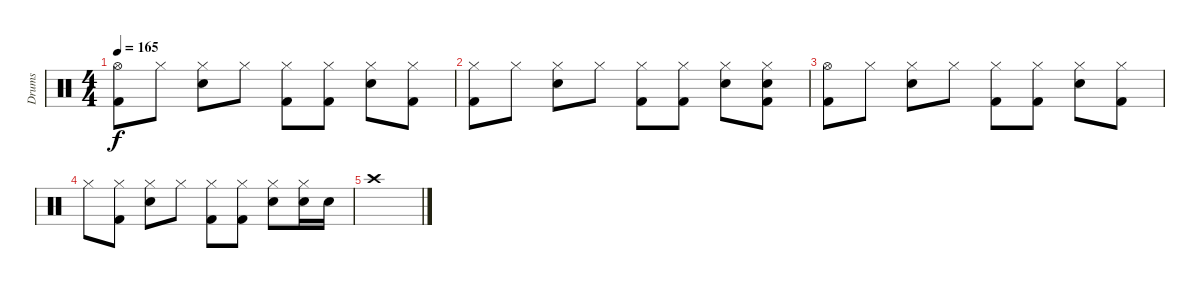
\track ("Drums" "Drums") {instrument percussion}
\staff {score}
\articulation defaults
\ts (4 4)
\tempo 165
\clef neutral
\ks c
("Hi-Hat (open)" "Kick (hit) 2").8{dy f} "Hi-Hat (closed)".8 ("Hi-Hat (closed)" "Electric Snare (hit)").8 "Hi-Hat (closed)".8 ("Hi-Hat (closed)" "Kick (hit) 2").8 ("Hi-Hat (closed)" "Kick (hit) 2").8 ("Hi-Hat (closed)" "Electric Snare (hit)").8 ("Hi-Hat (closed)" "Kick (hit) 2").8 |
("Hi-Hat (closed)" "Kick (hit) 2").8 "Hi-Hat (closed)".8 ("Hi-Hat (closed)" "Electric Snare (hit)").8 "Hi-Hat (closed)".8 ("Hi-Hat (closed)" "Kick (hit) 2").8 ("Hi-Hat (closed)" "Kick (hit) 2").8 ("Hi-Hat (closed)" "Electric Snare (hit)").8 ("Hi-Hat (closed)" "Electric Snare (hit)" "Kick (hit) 2").8 |
("Hi-Hat (open)" "Kick (hit) 2").8 "Hi-Hat (closed)".8 ("Hi-Hat (closed)" "Electric Snare (hit)").8 "Hi-Hat (closed)".8 ("Hi-Hat (closed)" "Kick (hit) 2").8 ("Hi-Hat (closed)" "Kick (hit) 2").8 ("Hi-Hat (closed)" "Electric Snare (hit)").8 ("Hi-Hat (closed)" "Kick (hit) 2").8 |
"Hi-Hat (closed)".8 ("Hi-Hat (closed)" "Kick (hit) 2").8 ("Hi-Hat (closed)" "Electric Snare (hit)").8 "Hi-Hat (closed)".8 ("Hi-Hat (closed)" "Kick (hit) 2").8 ("Hi-Hat (closed)" "Kick (hit) 2").8 ("Hi-Hat (closed)" "Electric Snare (hit)").8 ("Hi-Hat (closed)" "Electric Snare (hit)").16 "Electric Snare (hit)".16 |
"Crash high (hit)".1
